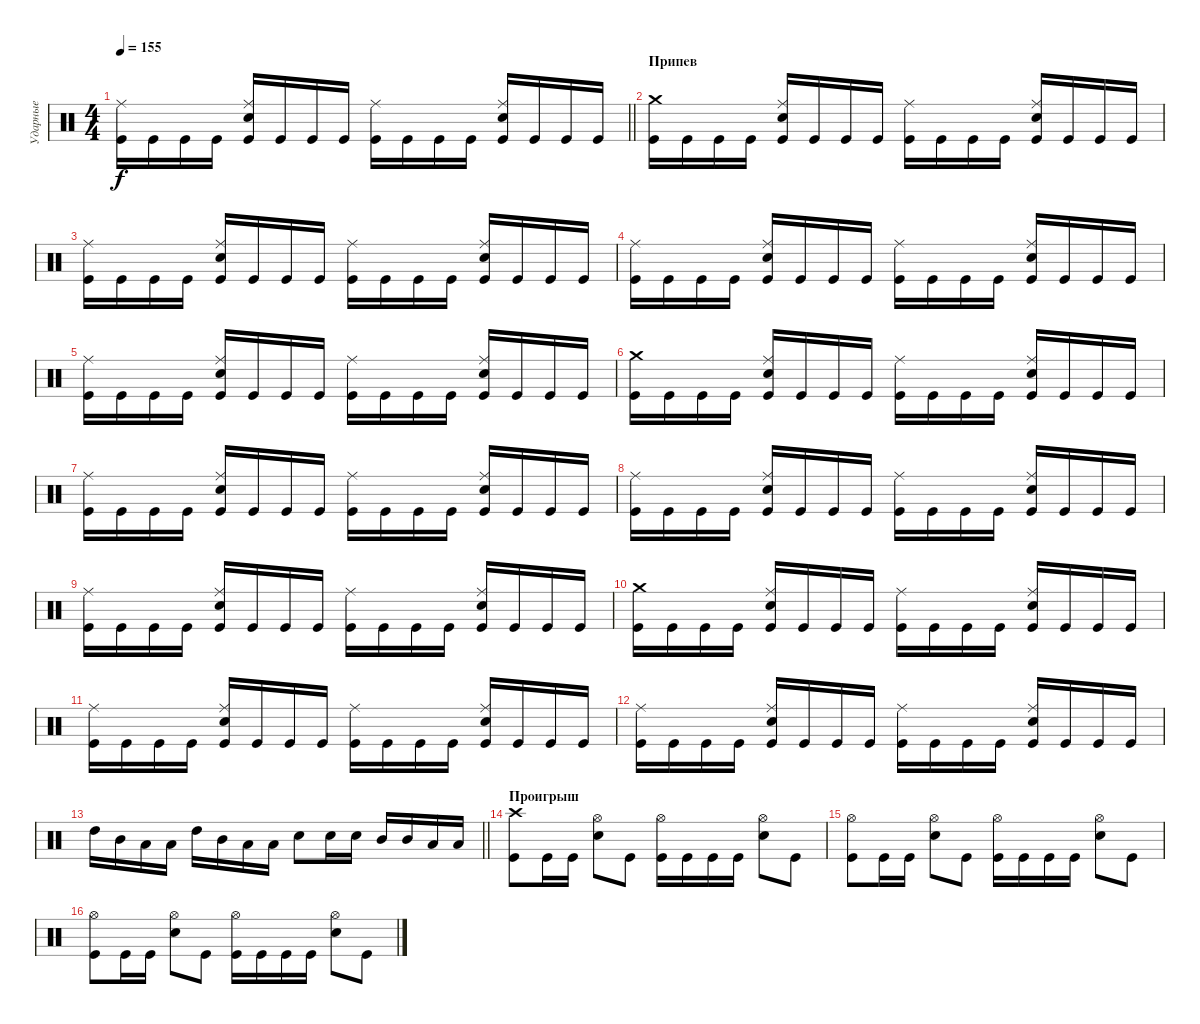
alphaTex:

\track ("Ударные" "Ударные") {instrument percussion}
\staff {score}
\articulation defaults
\ts (4 4)
\tempo 155
\clef neutral
\barLineRight lightlight
\ks c
("Kick (hit)" "Ride (middle)").16{dy f} "Kick (hit)".16 "Kick (hit)".16 "Kick (hit)".16 ("Kick (hit)" "Snare (hit) 2" "Ride (middle)").16 "Kick (hit)".16 "Kick (hit)".16 "Kick (hit)".16 ("Kick (hit)" "Ride (middle)").16 "Kick (hit)".16 "Kick (hit)".16 "Kick (hit)".16 ("Kick (hit)" "Snare (hit) 2" "Ride (middle)").16 "Kick (hit)".16 "Kick (hit)".16 "Kick (hit)".16 |
\section ("" "Припев")
("Kick (hit)" "Crash medium (hit)").16 "Kick (hit)".16 "Kick (hit)".16 "Kick (hit)".16 ("Kick (hit)" "Snare (hit) 2" "Ride (middle)").16 "Kick (hit)".16 "Kick (hit)".16 "Kick (hit)".16 ("Kick (hit)" "Ride (middle)").16 "Kick (hit)".16 "Kick (hit)".16 "Kick (hit)".16 ("Kick (hit)" "Snare (hit) 2" "Ride (middle)").16 "Kick (hit)".16 "Kick (hit)".16 "Kick (hit)".16 |
("Kick (hit)" "Ride (middle)").16 "Kick (hit)".16 "Kick (hit)".16 "Kick (hit)".16 ("Kick (hit)" "Snare (hit) 2" "Ride (middle)").16 "Kick (hit)".16 "Kick (hit)".16 "Kick (hit)".16 ("Kick (hit)" "Ride (middle)").16 "Kick (hit)".16 "Kick (hit)".16 "Kick (hit)".16 ("Kick (hit)" "Snare (hit) 2" "Ride (middle)").16 "Kick (hit)".16 "Kick (hit)".16 "Kick (hit)".16 |
("Kick (hit)" "Ride (middle)").16 "Kick (hit)".16 "Kick (hit)".16 "Kick (hit)".16 ("Kick (hit)" "Snare (hit) 2" "Ride (middle)").16 "Kick (hit)".16 "Kick (hit)".16 "Kick (hit)".16 ("Kick (hit)" "Ride (middle)").16 "Kick (hit)".16 "Kick (hit)".16 "Kick (hit)".16 ("Kick (hit)" "Snare (hit) 2" "Ride (middle)").16 "Kick (hit)".16 "Kick (hit)".16 "Kick (hit)".16 |
("Kick (hit)" "Ride (middle)").16 "Kick (hit)".16 "Kick (hit)".16 "Kick (hit)".16 ("Kick (hit)" "Snare (hit) 2" "Ride (middle)").16 "Kick (hit)".16 "Kick (hit)".16 "Kick (hit)".16 ("Kick (hit)" "Ride (middle)").16 "Kick (hit)".16 "Kick (hit)".16 "Kick (hit)".16 ("Kick (hit)" "Snare (hit) 2" "Ride (middle)").16 "Kick (hit)".16 "Kick (hit)".16 "Kick (hit)".16 |
("Kick (hit)" "Crash medium (hit)").16 "Kick (hit)".16 "Kick (hit)".16 "Kick (hit)".16 ("Kick (hit)" "Snare (hit) 2" "Ride (middle)").16 "Kick (hit)".16 "Kick (hit)".16 "Kick (hit)".16 ("Kick (hit)" "Ride (middle)").16 "Kick (hit)".16 "Kick (hit)".16 "Kick (hit)".16 ("Kick (hit)" "Snare (hit) 2" "Ride (middle)").16 "Kick (hit)".16 "Kick (hit)".16 "Kick (hit)".16 |
("Kick (hit)" "Ride (middle)").16 "Kick (hit)".16 "Kick (hit)".16 "Kick (hit)".16 ("Kick (hit)" "Snare (hit) 2" "Ride (middle)").16 "Kick (hit)".16 "Kick (hit)".16 "Kick (hit)".16 ("Kick (hit)" "Ride (middle)").16 "Kick (hit)".16 "Kick (hit)".16 "Kick (hit)".16 ("Kick (hit)" "Snare (hit) 2" "Ride (middle)").16 "Kick (hit)".16 "Kick (hit)".16 "Kick (hit)".16 |
("Kick (hit)" "Ride (middle)").16 "Kick (hit)".16 "Kick (hit)".16 "Kick (hit)".16 ("Kick (hit)" "Snare (hit) 2" "Ride (middle)").16 "Kick (hit)".16 "Kick (hit)".16 "Kick (hit)".16 ("Kick (hit)" "Ride (middle)").16 "Kick (hit)".16 "Kick (hit)".16 "Kick (hit)".16 ("Kick (hit)" "Snare (hit) 2" "Ride (middle)").16 "Kick (hit)".16 "Kick (hit)".16 "Kick (hit)".16 |
("Kick (hit)" "Ride (middle)").16 "Kick (hit)".16 "Kick (hit)".16 "Kick (hit)".16 ("Kick (hit)" "Snare (hit) 2" "Ride (middle)").16 "Kick (hit)".16 "Kick (hit)".16 "Kick (hit)".16 ("Kick (hit)" "Ride (middle)").16 "Kick (hit)".16 "Kick (hit)".16 "Kick (hit)".16 ("Kick (hit)" "Snare (hit) 2" "Ride (middle)").16 "Kick (hit)".16 "Kick (hit)".16 "Kick (hit)".16 |
("Kick (hit)" "Crash medium (hit)").16 "Kick (hit)".16 "Kick (hit)".16 "Kick (hit)".16 ("Kick (hit)" "Snare (hit) 2" "Ride (middle)").16 "Kick (hit)".16 "Kick (hit)".16 "Kick (hit)".16 ("Kick (hit)" "Ride (middle)").16 "Kick (hit)".16 "Kick (hit)".16 "Kick (hit)".16 ("Kick (hit)" "Snare (hit) 2" "Ride (middle)").16 "Kick (hit)".16 "Kick (hit)".16 "Kick (hit)".16 |
("Kick (hit)" "Ride (middle)").16 "Kick (hit)".16 "Kick (hit)".16 "Kick (hit)".16 ("Kick (hit)" "Snare (hit) 2" "Ride (middle)").16 "Kick (hit)".16 "Kick (hit)".16 "Kick (hit)".16 ("Kick (hit)" "Ride (middle)").16 "Kick (hit)".16 "Kick (hit)".16 "Kick (hit)".16 ("Kick (hit)" "Snare (hit) 2" "Ride (middle)").16 "Kick (hit)".16 "Kick (hit)".16 "Kick (hit)".16 |
("Kick (hit)" "Ride (middle)").16 "Kick (hit)".16 "Kick (hit)".16 "Kick (hit)".16 ("Kick (hit)" "Snare (hit) 2" "Ride (middle)").16 "Kick (hit)".16 "Kick (hit)".16 "Kick (hit)".16 ("Kick (hit)" "Ride (middle)").16 "Kick (hit)".16 "Kick (hit)".16 "Kick (hit)".16 ("Kick (hit)" "Snare (hit) 2" "Ride (middle)").16 "Kick (hit)".16 "Kick (hit)".16 "Kick (hit)".16 |
\barLineRight lightlight "High Tom (hit)".16 "Mid Tom (hit)".16 "Low Tom (hit)".16 "Low Tom (hit)".16 "High Tom (hit)".16 "Mid Tom (hit)".16 "Low Tom (hit)".16 "Low Tom (hit)".16 "Snare (hit) 2".8 "Snare (hit) 2".16 "Snare (hit) 2".16 "Mid Tom (hit)".16 "Mid Tom (hit)".16 "Low Tom (hit)".16 "Low Tom (hit)".16
|
\section ("" "Проигрыш")
("Kick (hit)" "Crash high (hit)").8 "Kick (hit)".16 "Kick (hit)".16 ("Snare (hit) 2" "Hi-Hat (open)").8 "Kick (hit)".8 ("Kick (hit)" "Hi-Hat (open)").16 "Kick (hit)".16 "Kick (hit)".16 "Kick (hit)".16 ("Snare (hit) 2" "Hi-Hat (open)").8 "Kick (hit)".8 |
("Kick (hit)" "Hi-Hat (open)").8 "Kick (hit)".16 "Kick (hit)".16 ("Snare (hit) 2" "Hi-Hat (open)").8 "Kick (hit)".8 ("Kick (hit)" "Hi-Hat (open)").16 "Kick (hit)".16 "Kick (hit)".16 "Kick (hit)".16 ("Snare (hit) 2" "Hi-Hat (open)").8 "Kick (hit)".8 |
("Kick (hit)" "Hi-Hat (open)").8 "Kick (hit)".16 "Kick (hit)".16 ("Snare (hit) 2" "Hi-Hat (open)").8 "Kick (hit)".8 ("Kick (hit)" "Hi-Hat (open)").16 "Kick (hit)".16 "Kick (hit)".16 "Kick (hit)".16 ("Snare (hit) 2" "Hi-Hat (open)").8 "Kick (hit)".8
